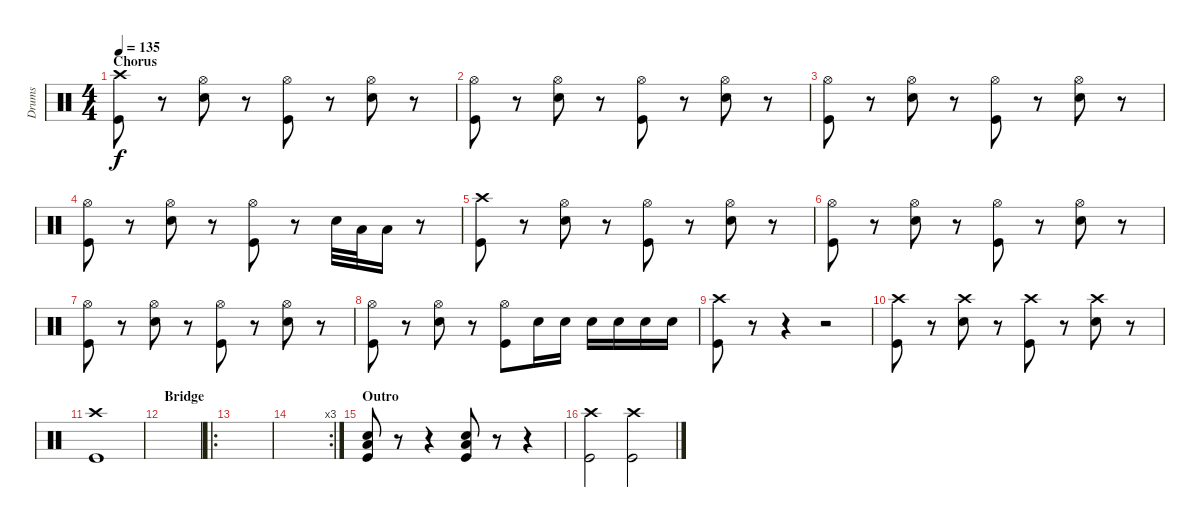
\track ("Drums" "Drums") {instrument percussion}
\staff {score}
\articulation defaults
\ts (4 4)
\section ("" "Chorus")
\tempo 135
\clef neutral
\ks c
("Crash high (hit)" "Kick (hit)").8{dy f} r.8 ("Hi-Hat (open)" "Snare (hit) 2").8 r.8 ("Hi-Hat (open)" "Kick (hit)").8 r.8 ("Hi-Hat (open)" "Snare (hit) 2").8 r.8 |
("Hi-Hat (open)" "Kick (hit)").8 r.8 ("Hi-Hat (open)" "Snare (hit) 2").8 r.8 ("Hi-Hat (open)" "Kick (hit)").8 r.8 ("Hi-Hat (open)" "Snare (hit) 2").8 r.8 |
("Hi-Hat (open)" "Kick (hit)").8 r.8 ("Hi-Hat (open)" "Snare (hit) 2").8 r.8 ("Hi-Hat (open)" "Kick (hit)").8 r.8 ("Hi-Hat (open)" "Snare (hit) 2").8 r.8 |
("Hi-Hat (open)" "Kick (hit)").8 r.8 ("Hi-Hat (open)" "Snare (hit) 2").8 r.8 ("Hi-Hat (open)" "Kick (hit)").8 r.8 "Snare (hit) 2".32 "Low Tom (hit)".32 "Low Floor Tom (hit)".16 r.8 |
("Crash high (hit)" "Kick (hit)").8 r.8 ("Hi-Hat (open)" "Snare (hit) 2").8 r.8 ("Hi-Hat (open)" "Kick (hit)").8 r.8 ("Hi-Hat (open)" "Snare (hit) 2").8 r.8 |
("Hi-Hat (open)" "Kick (hit)").8 r.8 ("Hi-Hat (open)" "Snare (hit) 2").8 r.8 ("Hi-Hat (open)" "Kick (hit)").8 r.8 ("Hi-Hat (open)" "Snare (hit) 2").8 r.8 |
("Hi-Hat (open)" "Kick (hit)").8 r.8 ("Hi-Hat (open)" "Snare (hit) 2").8 r.8 ("Hi-Hat (open)" "Kick (hit)").8 r.8 ("Hi-Hat (open)" "Snare (hit) 2").8 r.8 |
("Hi-Hat (open)" "Kick (hit)").8 r.8 ("Hi-Hat (open)" "Snare (hit) 2").8 r.8 ("Hi-Hat (open)" "Kick (hit)").8 "Snare (hit) 2".16 "Snare (hit) 2".16 "Snare (hit) 2".16 "Snare (hit) 2".16 "Snare (hit) 2".16 "Snare (hit) 2".16 |
("Crash high (hit)" "Kick (hit)").8 r.8 r.4 r.2 |
("Crash high (hit)" "Kick (hit)").8 r.8 ("Crash high (hit)" "Snare (hit) 2").8 r.8 ("Crash high (hit)" "Kick (hit)").8 r.8 ("Crash high (hit)" "Snare (hit) 2").8 r.8 |
("Crash high (hit)" "Kick (hit)").1 |
\section ("" "Bridge")
|
\ro
|
\rc 3
|
\section ("" "Outro")
("Snare (hit) 2" "Low Floor Tom (hit)" "Kick (hit)").8 r.8 r.4 ("Snare (hit) 2" "Low Floor Tom (hit)" "Kick (hit)").8 r.8 r.4 |
("Crash high (hit)" "Kick (hit)").2 ("Crash high (hit)" "Kick (hit)").2
